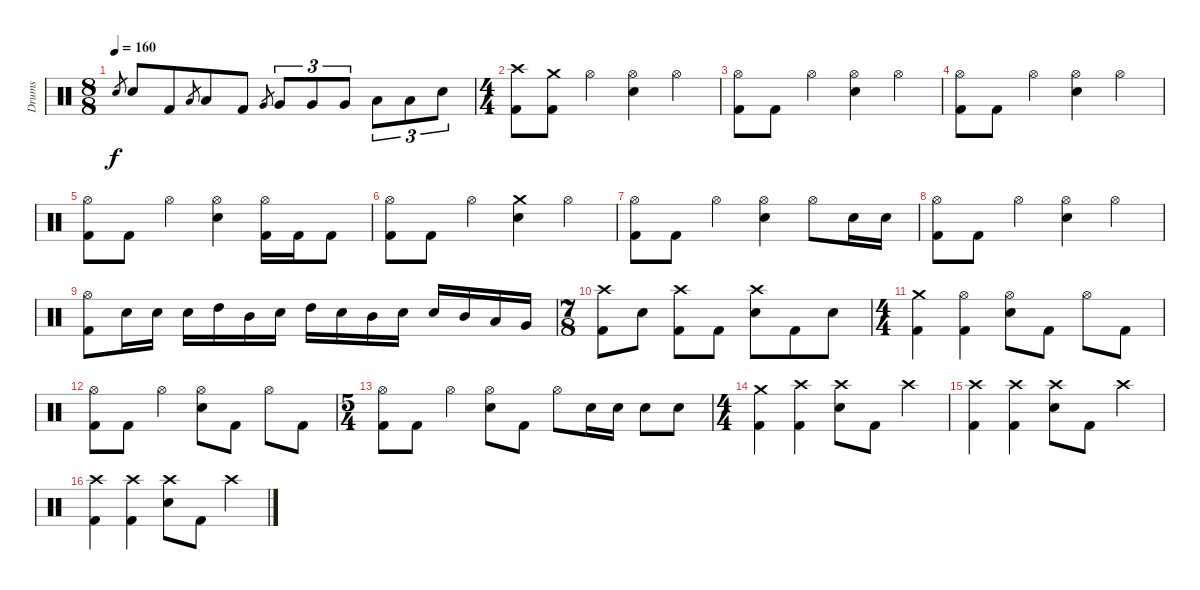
\track ("Drums" "Drums") {instrument percussion}
\staff {score}
\articulation defaults
\ts (8 8)
\tempo 160
\clef neutral
\ks c "Electric Snare (hit)".8{gr dy f} "Electric Snare (hit)".8 "Kick (hit) 2".8 "Low Tom (hit)".8{gr beam split} "Low Tom (hit)".8{beam merge} "Kick (hit) 2".8 "Very Low Tom (hit)".8{gr} "Very Low Tom (hit)".8{tu (3 2)} "Very Low Tom (hit)".8{tu (3 2) beam merge} "Very Low Tom (hit)".8{tu (3 2)} "Low Floor Tom (hit)".8{tu (3 2)} "Low Floor Tom (hit)".8{tu (3 2) beam merge} "Electric Snare (hit)".8{tu (3 2)}
|
\ts (4 4)
("Crash high (hit)" "Kick (hit) 2").8 ("Crash medium (hit)" "Kick (hit) 2").8 "Hi-Hat (open)".4 ("Hi-Hat (open)" "Electric Snare (hit)").4 "Hi-Hat (open)".4 |
("Hi-Hat (open)" "Kick (hit) 2").8 "Kick (hit) 2".8 "Hi-Hat (open)".4 ("Hi-Hat (open)" "Electric Snare (hit)").4 "Hi-Hat (open)".4 |
("Hi-Hat (open)" "Kick (hit) 2").8 "Kick (hit) 2".8 "Hi-Hat (open)".4 ("Hi-Hat (open)" "Electric Snare (hit)").4 "Hi-Hat (open)".4 |
("Hi-Hat (open)" "Kick (hit) 2").8 "Kick (hit) 2".8 "Hi-Hat (open)".4 ("Hi-Hat (open)" "Electric Snare (hit)").4 ("Hi-Hat (open)" "Kick (hit) 2").16 "Kick (hit) 2".16 "Kick (hit) 2".8 |
("Hi-Hat (open)" "Kick (hit) 2").8 "Kick (hit) 2".8 "Hi-Hat (open)".4 ("Crash medium (hit)" "Electric Snare (hit)").4 "Hi-Hat (open)".4 |
("Hi-Hat (open)" "Kick (hit) 2").8 "Kick (hit) 2".8 "Hi-Hat (open)".4 ("Hi-Hat (open)" "Electric Snare (hit)").4 "Hi-Hat (open)".8 "Electric Snare (hit)".16 "Electric Snare (hit)".16 |
("Hi-Hat (open)" "Kick (hit) 2").8 "Kick (hit) 2".8 "Hi-Hat (open)".4 ("Hi-Hat (open)" "Electric Snare (hit)").4 "Hi-Hat (open)".4 |
("Hi-Hat (open)" "Kick (hit) 2").8 "Electric Snare (hit)".16 "Electric Snare (hit)".16 "Electric Snare (hit)".16 "High Tom (hit)".16 "Mid Tom (hit)".16 "Electric Snare (hit)".16 "High Tom (hit)".16 "Electric Snare (hit)".16 "Mid Tom (hit)".16 "Electric Snare (hit)".16 "Electric Snare (hit)".16 "Mid Tom (hit)".16 "Low Tom (hit)".16 "Very Low Tom (hit)".16 |
\ts (7 8)
("Crash high (hit)" "Kick (hit) 2").8 "Electric Snare (hit)".8{beam split} ("Crash high (hit)" "Kick (hit) 2").8{beam merge} "Kick (hit) 2".8{beam split} ("Crash high (hit)" "Electric Snare (hit)").8{beam merge} "Kick (hit) 2".8 "Electric Snare (hit)".8 |
\ts (4 4)
("Crash medium (hit)" "Kick (hit) 2").4 ("Hi-Hat (open)" "Kick (hit) 2").4 ("Hi-Hat (open)" "Electric Snare (hit)").8 "Kick (hit) 2".8 "Hi-Hat (open)".8 "Kick (hit) 2".8 |
("Hi-Hat (open)" "Kick (hit) 2").8 "Kick (hit) 2".8 "Hi-Hat (open)".4 ("Hi-Hat (open)" "Electric Snare (hit)").8 "Kick (hit) 2".8 "Hi-Hat (open)".8 "Kick (hit) 2".8 |
\ts (5 4)
("Hi-Hat (open)" "Kick (hit) 2").8 "Kick (hit) 2".8 "Hi-Hat (open)".4 ("Hi-Hat (open)" "Electric Snare (hit)").8 "Kick (hit) 2".8 "Hi-Hat (open)".8 "Electric Snare (hit)".16 "Electric Snare (hit)".16 "Electric Snare (hit)".8 "Electric Snare (hit)".8 |
\ts (4 4)
("Crash medium (hit)" "Kick (hit) 2").4 ("Crash high (hit)" "Kick (hit) 2").4 ("Crash high (hit)" "Electric Snare (hit)").8 "Kick (hit) 2".8 "Crash high (hit)".4 |
("Crash high (hit)" "Kick (hit) 2").4 ("Crash high (hit)" "Kick (hit) 2").4 ("Crash high (hit)" "Electric Snare (hit)").8 "Kick (hit) 2".8 "Crash high (hit)".4 |
("Crash high (hit)" "Kick (hit) 2").4 ("Crash high (hit)" "Kick (hit) 2").4 ("Crash high (hit)" "Electric Snare (hit)").8 "Kick (hit) 2".8 "Crash high (hit)".4
